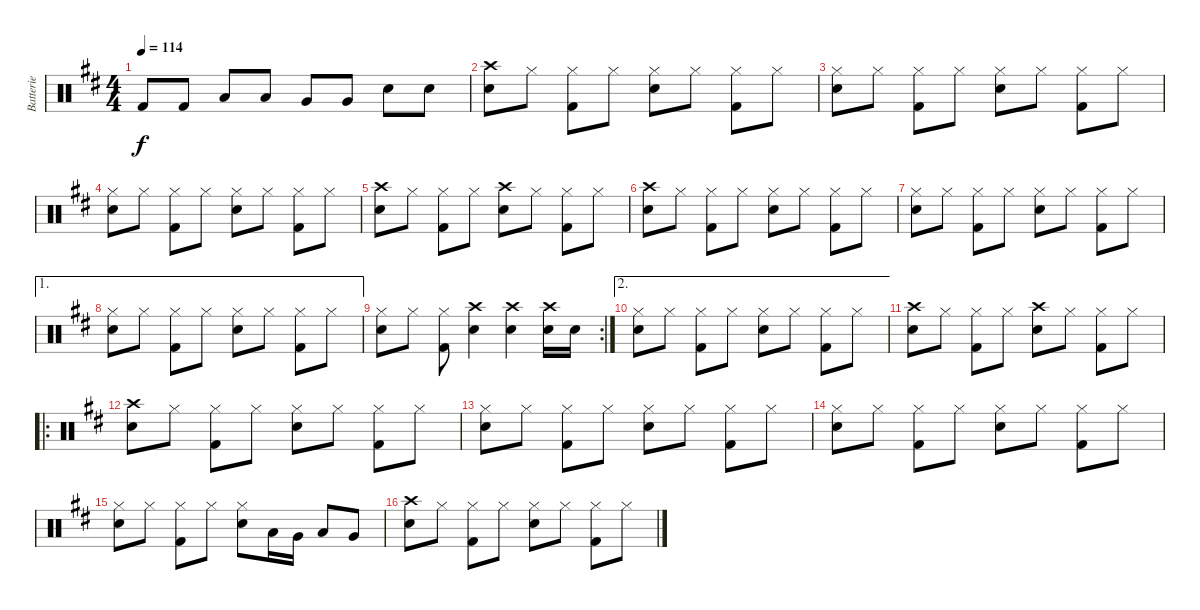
\track ("Batterie" "Batterie") {instrument percussion}
\staff {score}
\articulation defaults
\ts (4 4)
\tempo 114
\clef neutral
\ks d "Kick (hit) 2".8{dy f} "Kick (hit) 2".8 "Low Floor Tom (hit)".8 "Low Floor Tom (hit)".8 "Very Low Tom (hit)".8 "Very Low Tom (hit)".8 "Snare (hit) 2".8 "Snare (hit) 2".8
|
("Crash high (hit)" "Snare (hit) 2").8 "Hi-Hat (closed)".8 ("Hi-Hat (closed)" "Kick (hit) 2").8 "Hi-Hat (closed)".8 ("Hi-Hat (closed)" "Snare (hit) 2").8 "Hi-Hat (closed)".8 ("Hi-Hat (closed)" "Kick (hit) 2").8 "Hi-Hat (closed)".8 |
("Hi-Hat (closed)" "Snare (hit) 2").8 "Hi-Hat (closed)".8 ("Hi-Hat (closed)" "Kick (hit) 2").8 "Hi-Hat (closed)".8 ("Hi-Hat (closed)" "Snare (hit) 2").8 "Hi-Hat (closed)".8 ("Hi-Hat (closed)" "Kick (hit) 2").8 "Hi-Hat (closed)".8 |
("Hi-Hat (closed)" "Snare (hit) 2").8 "Hi-Hat (closed)".8 ("Hi-Hat (closed)" "Kick (hit) 2").8 "Hi-Hat (closed)".8 ("Hi-Hat (closed)" "Snare (hit) 2").8 "Hi-Hat (closed)".8 ("Hi-Hat (closed)" "Kick (hit) 2").8 "Hi-Hat (closed)".8 |
("Crash high (hit)" "Snare (hit) 2").8 "Hi-Hat (closed)".8 ("Hi-Hat (closed)" "Kick (hit) 2").8 "Hi-Hat (closed)".8 ("Crash high (hit)" "Snare (hit) 2").8 "Hi-Hat (closed)".8 ("Hi-Hat (closed)" "Kick (hit) 2").8 "Hi-Hat (closed)".8 |
("Crash high (hit)" "Snare (hit) 2").8 "Hi-Hat (closed)".8 ("Hi-Hat (closed)" "Kick (hit) 2").8 "Hi-Hat (closed)".8 ("Hi-Hat (closed)" "Snare (hit) 2").8 "Hi-Hat (closed)".8 ("Hi-Hat (closed)" "Kick (hit) 2").8 "Hi-Hat (closed)".8 |
("Hi-Hat (closed)" "Snare (hit) 2").8 "Hi-Hat (closed)".8 ("Hi-Hat (closed)" "Kick (hit) 2").8 "Hi-Hat (closed)".8 ("Hi-Hat (closed)" "Snare (hit) 2").8 "Hi-Hat (closed)".8 ("Hi-Hat (closed)" "Kick (hit) 2").8 "Hi-Hat (closed)".8 |
\ae 1
("Hi-Hat (closed)" "Snare (hit) 2").8 "Hi-Hat (closed)".8 ("Hi-Hat (closed)" "Kick (hit) 2").8 "Hi-Hat (closed)".8 ("Hi-Hat (closed)" "Snare (hit) 2").8 "Hi-Hat (closed)".8 ("Hi-Hat (closed)" "Kick (hit) 2").8 "Hi-Hat (closed)".8 |
\rc 2
("Hi-Hat (closed)" "Snare (hit) 2").8 "Hi-Hat (closed)".8 ("Hi-Hat (closed)" "Kick (hit) 2").8 ("Crash high (hit)" "Snare (hit) 2").4 ("Crash high (hit)" "Snare (hit) 2").4 ("Crash high (hit)" "Snare (hit) 2").16 "Snare (hit) 2".16 |
\ae 2
("Hi-Hat (closed)" "Snare (hit) 2").8 "Hi-Hat (closed)".8 ("Hi-Hat (closed)" "Kick (hit) 2").8 "Hi-Hat (closed)".8 ("Hi-Hat (closed)" "Snare (hit) 2").8 "Hi-Hat (closed)".8 ("Hi-Hat (closed)" "Kick (hit) 2").8 "Hi-Hat (closed)".8 |
("Crash high (hit)" "Snare (hit) 2").8 "Hi-Hat (closed)".8 ("Hi-Hat (closed)" "Kick (hit) 2").8 "Hi-Hat (closed)".8 ("Crash high (hit)" "Snare (hit) 2").8 "Hi-Hat (closed)".8 ("Hi-Hat (closed)" "Kick (hit) 2").8 "Hi-Hat (closed)".8 |
\ro
("Crash high (hit)" "Snare (hit) 2").8 "Hi-Hat (closed)".8 ("Hi-Hat (closed)" "Kick (hit) 2").8 "Hi-Hat (closed)".8 ("Hi-Hat (closed)" "Snare (hit) 2").8 "Hi-Hat (closed)".8 ("Hi-Hat (closed)" "Kick (hit) 2").8 "Hi-Hat (closed)".8 |
("Hi-Hat (closed)" "Snare (hit) 2").8 "Hi-Hat (closed)".8 ("Hi-Hat (closed)" "Kick (hit) 2").8 "Hi-Hat (closed)".8 ("Hi-Hat (closed)" "Snare (hit) 2").8 "Hi-Hat (closed)".8 ("Hi-Hat (closed)" "Kick (hit) 2").8 "Hi-Hat (closed)".8 |
("Hi-Hat (closed)" "Snare (hit) 2").8 "Hi-Hat (closed)".8 ("Hi-Hat (closed)" "Kick (hit) 2").8 "Hi-Hat (closed)".8 ("Hi-Hat (closed)" "Snare (hit) 2").8 "Hi-Hat (closed)".8 ("Hi-Hat (closed)" "Kick (hit) 2").8 "Hi-Hat (closed)".8 |
("Hi-Hat (closed)" "Snare (hit) 2").8 "Hi-Hat (closed)".8 ("Hi-Hat (closed)" "Kick (hit) 2").8 "Hi-Hat (closed)".8 ("Hi-Hat (closed)" "Snare (hit) 2").8 "Low Tom (hit)".16 "Very Low Tom (hit)".16 "Low Floor Tom (hit)".8 "Very Low Tom (hit)".8 |
("Crash high (hit)" "Snare (hit) 2").8 "Hi-Hat (closed)".8 ("Hi-Hat (closed)" "Kick (hit) 2").8 "Hi-Hat (closed)".8 ("Hi-Hat (closed)" "Snare (hit) 2").8 "Hi-Hat (closed)".8 ("Hi-Hat (closed)" "Kick (hit) 2").8 "Hi-Hat (closed)".8
